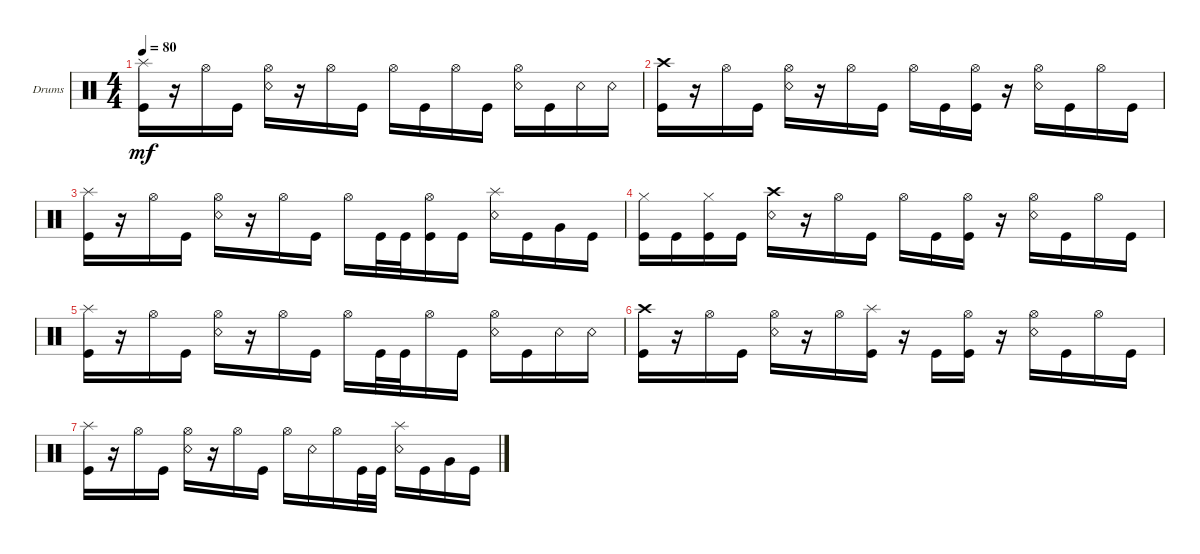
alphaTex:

\defaultSystemsLayout 4
\bracketExtendMode groupsimilarinstruments
\firstSystemTrackNameOrientation horizontal
\otherSystemsTrackNameOrientation horizontal
\track ("Drumkit" "Drums") {instrument percussion}
\staff {score}
\articulation defaults
\ts (4 4)
\tempo 80
\clef neutral
\ks c
("Kick (hit)" "Splash (hit)").16{dy mf} r.16 "Hi-Hat (open)".16 "Kick (hit)".16 ("Snare (rim shot)" "Hi-Hat (open)").16 r.16 "Hi-Hat (open)".16 "Kick (hit)".16 "Hi-Hat (open)".16 "Kick (hit)".16 "Hi-Hat (open)".16 "Kick (hit)".16 ("Snare (rim shot)" "Hi-Hat (open)").16 "Kick (hit)".16 "Snare (rim shot)".16 "Snare (rim shot)".16 |
("Kick (hit)" "Crash high (hit)").16 r.16 "Hi-Hat (open)".16 "Kick (hit)".16 ("Snare (rim shot)" "Hi-Hat (open)").16 r.16 "Hi-Hat (open)".16 "Kick (hit)".16 "Hi-Hat (open)".16 "Kick (hit)".16 ("Kick (hit)" "Hi-Hat (open)").16 r.16 ("Snare (rim shot)" "Hi-Hat (open)").16 "Kick (hit)".16 "Hi-Hat (open)".16 "Kick (hit)".16 |
("Kick (hit)" "Splash (hit)").16 r.16 "Hi-Hat (open)".16 "Kick (hit)".16 ("Snare (rim shot)" "Hi-Hat (open)").16 r.16 "Hi-Hat (open)".16 "Kick (hit)".16 "Hi-Hat (open)".16 "Kick (hit)".32 "Kick (hit)".32 ("Hi-Hat (open)" "Kick (hit)").16 "Kick (hit)".16 ("Snare (rim shot)" "Splash (hit)").16 "Kick (hit)".16 "Very Low Tom (hit)".16 "Kick (hit)".16 |
("Kick (hit)" "Hi-Hat (closed)").16 "Kick (hit)".16 ("Kick (hit)" "Hi-Hat (closed)").16 "Kick (hit)".16 ("Snare (rim shot)" "Crash high (hit)").16 r.16 "Hi-Hat (open)".16 "Kick (hit)".16 "Hi-Hat (open)".16 "Kick (hit)".16 ("Kick (hit)" "Hi-Hat (open)").16 r.16 ("Snare (rim shot)" "Hi-Hat (open)").16 "Kick (hit)".16 "Hi-Hat (open)".16 "Kick (hit)".16 |
("Kick (hit)" "Splash (hit)").16 r.16 "Hi-Hat (open)".16 "Kick (hit)".16 ("Snare (rim shot)" "Hi-Hat (open)").16 r.16 "Hi-Hat (open)".16 "Kick (hit)".16 "Hi-Hat (open)".16 "Kick (hit)".32 "Kick (hit)".32 "Hi-Hat (open)".16 "Kick (hit)".16 ("Snare (rim shot)" "Hi-Hat (open)").16 "Kick (hit)".16 "Snare (rim shot)".16 "Snare (rim shot)".16 |
("Kick (hit)" "Crash high (hit)").16 r.16 "Hi-Hat (open)".16 "Kick (hit)".16 ("Snare (rim shot)" "Hi-Hat (open)").16 r.16 "Hi-Hat (open)".16 ("Kick (hit)" "Splash (hit)").16 r.16 "Kick (hit)".16 ("Kick (hit)" "Hi-Hat (open)").16 r.16 ("Snare (rim shot)" "Hi-Hat (open)").16 "Kick (hit)".16 "Hi-Hat (open)".16 "Kick (hit)".16 |
("Kick (hit)" "Splash (hit)").16 r.16 "Hi-Hat (open)".16 "Kick (hit)".16 ("Snare (rim shot)" "Hi-Hat (open)").16 r.16 "Hi-Hat (open)".16 "Kick (hit)".16 "Hi-Hat (open)".16 "Snare (rim shot)".16 "Hi-Hat (open)".16 "Kick (hit)".32 "Kick (hit)".32 ("Snare (rim shot)" "Splash (hit)").16 "Kick (hit)".16 "Very Low Tom (hit)".16 "Kick (hit)".16
